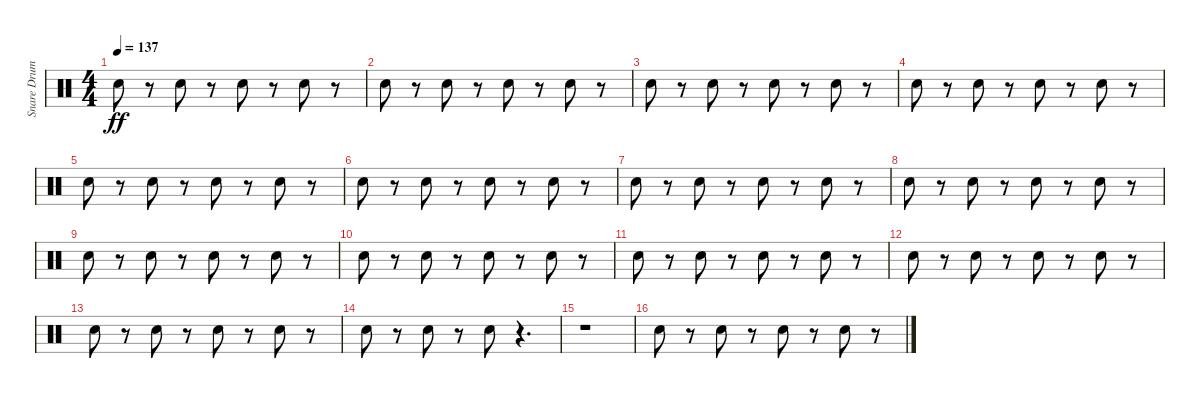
\track ("Snare Drum" "Snare Drum") {instrument percussion}
\staff {score}
\articulation defaults
\ts (4 4)
\tempo 137
\clef neutral
\ks c "Snare (hit) 2".8{dy ff}
r.8 "Snare (hit) 2".8 r.8 "Snare (hit) 2".8 r.8 "Snare (hit) 2".8 r.8 |
"Snare (hit) 2".8 r.8 "Snare (hit) 2".8 r.8 "Snare (hit) 2".8 r.8 "Snare (hit) 2".8 r.8 |
"Snare (hit) 2".8 r.8 "Snare (hit) 2".8 r.8 "Snare (hit) 2".8 r.8 "Snare (hit) 2".8 r.8 |
"Snare (hit) 2".8 r.8 "Snare (hit) 2".8 r.8 "Snare (hit) 2".8 r.8 "Snare (hit) 2".8 r.8 |
"Snare (hit) 2".8 r.8 "Snare (hit) 2".8 r.8 "Snare (hit) 2".8 r.8 "Snare (hit) 2".8 r.8 |
"Snare (hit) 2".8 r.8 "Snare (hit) 2".8 r.8 "Snare (hit) 2".8 r.8 "Snare (hit) 2".8 r.8 |
"Snare (hit) 2".8 r.8 "Snare (hit) 2".8 r.8 "Snare (hit) 2".8 r.8 "Snare (hit) 2".8 r.8 |
"Snare (hit) 2".8 r.8 "Snare (hit) 2".8 r.8 "Snare (hit) 2".8 r.8 "Snare (hit) 2".8 r.8 |
"Snare (hit) 2".8 r.8 "Snare (hit) 2".8 r.8 "Snare (hit) 2".8 r.8 "Snare (hit) 2".8 r.8 |
"Snare (hit) 2".8 r.8 "Snare (hit) 2".8 r.8 "Snare (hit) 2".8 r.8 "Snare (hit) 2".8 r.8 |
"Snare (hit) 2".8 r.8 "Snare (hit) 2".8 r.8 "Snare (hit) 2".8 r.8 "Snare (hit) 2".8 r.8 |
"Snare (hit) 2".8 r.8 "Snare (hit) 2".8 r.8 "Snare (hit) 2".8 r.8 "Snare (hit) 2".8 r.8 |
"Snare (hit) 2".8 r.8 "Snare (hit) 2".8 r.8 "Snare (hit) 2".8 r.8 "Snare (hit) 2".8 r.8 |
"Snare (hit) 2".8 r.8 "Snare (hit) 2".8 r.8 "Snare (hit) 2".8 r.4{d} |
r.1 |
"Snare (hit) 2".8 r.8 "Snare (hit) 2".8 r.8 "Snare (hit) 2".8 r.8 "Snare (hit) 2".8 r.8
